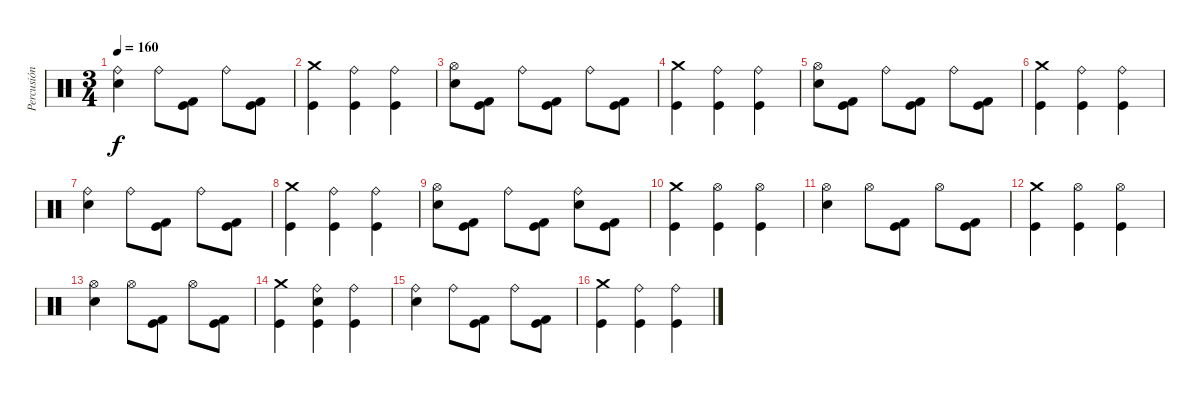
\track ("Percusión" "Percusión") {instrument percussion}
\staff {score}
\articulation defaults
\ts (3 4)
\tempo 160
\clef neutral
\ks c
("Ride (bell)" "Electric Snare (hit)").4{dy f} "Ride (bell)".8 ("Kick (hit) 2" "Kick (hit)").8 "Ride (bell)".8 ("Kick (hit) 2" "Kick (hit)").8 |
("Crash medium (hit)" "Kick (hit)").4 ("Ride (bell)" "Kick (hit)").4 ("Ride (bell)" "Kick (hit)").4 |
("Hi-Hat (open)" "Electric Snare (hit)").8 ("Kick (hit) 2" "Kick (hit)").8 "Ride (bell)".8 ("Kick (hit) 2" "Kick (hit)").8 "Ride (bell)".8 ("Kick (hit) 2" "Kick (hit)").8 |
("Crash medium (hit)" "Kick (hit)").4 ("Ride (bell)" "Kick (hit)").4 ("Ride (bell)" "Kick (hit)").4 |
("Hi-Hat (open)" "Electric Snare (hit)").8 ("Kick (hit) 2" "Kick (hit)").8 "Ride (bell)".8 ("Kick (hit) 2" "Kick (hit)").8 "Ride (bell)".8 ("Kick (hit) 2" "Kick (hit)").8 |
("Crash medium (hit)" "Kick (hit)").4 ("Ride (bell)" "Kick (hit)").4 ("Ride (bell)" "Kick (hit)").4 |
("Ride (bell)" "Electric Snare (hit)").4 "Ride (bell)".8 ("Kick (hit) 2" "Kick (hit)").8 "Ride (bell)".8 ("Kick (hit) 2" "Kick (hit)").8 |
("Crash medium (hit)" "Kick (hit)").4 ("Ride (bell)" "Kick (hit)").4 ("Ride (bell)" "Kick (hit)").4 |
("Hi-Hat (open)" "Electric Snare (hit)").8 ("Kick (hit) 2" "Kick (hit)").8 "Ride (bell)".8 ("Kick (hit) 2" "Kick (hit)").8 ("Ride (bell)" "Electric Snare (hit)").8 ("Kick (hit) 2" "Kick (hit)").8 |
("Crash medium (hit)" "Kick (hit)").4 ("Hi-Hat (open)" "Kick (hit)").4 ("Hi-Hat (open)" "Kick (hit)").4 |
("Hi-Hat (open)" "Electric Snare (hit)").4 "Hi-Hat (open)".8 ("Kick (hit) 2" "Kick (hit)").8 "Hi-Hat (open)".8 ("Kick (hit) 2" "Kick (hit)").8 |
("Crash medium (hit)" "Kick (hit)").4 ("Hi-Hat (open)" "Kick (hit)").4 ("Hi-Hat (open)" "Kick (hit)").4 |
("Hi-Hat (open)" "Electric Snare (hit)").4 "Hi-Hat (open)".8 ("Kick (hit) 2" "Kick (hit)").8 "Hi-Hat (open)".8 ("Kick (hit) 2" "Kick (hit)").8 |
("Crash medium (hit)" "Kick (hit)").4 ("Ride (bell)" "Electric Snare (hit)" "Kick (hit)").4 ("Ride (bell)" "Kick (hit)").4 |
("Ride (bell)" "Electric Snare (hit)").4 "Ride (bell)".8 ("Kick (hit) 2" "Kick (hit)").8 "Ride (bell)".8 ("Kick (hit) 2" "Kick (hit)").8 |
("Crash medium (hit)" "Kick (hit)").4 ("Ride (bell)" "Kick (hit)").4 ("Ride (bell)" "Kick (hit)").4
